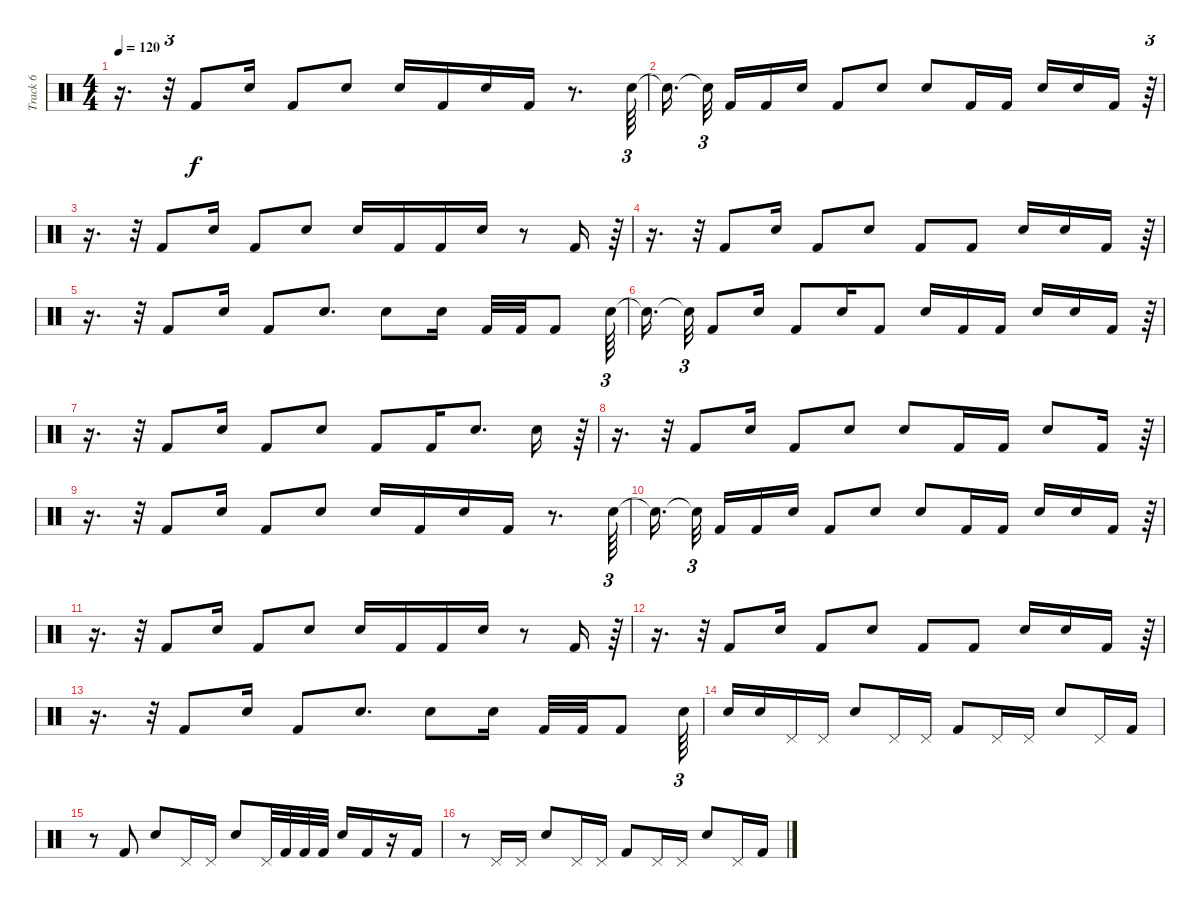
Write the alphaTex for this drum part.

\track ("Track 6" "Track 6") {instrument percussion}
\staff {score}
\articulation defaults
\ts (4 4)
\tempo 120
\clef neutral
\ks c
r.16{d dy f} r.32{tu (3 2)} "Kick (hit) 2".8 "Electric Snare (hit)".16 "Kick (hit) 2".8 "Electric Snare (hit)".8 "Electric Snare (hit)".16 "Kick (hit) 2".16 "Electric Snare (hit)".16 "Kick (hit) 2".16 r.8{d} "Electric Snare (hit)".64{tu (3 2)} |
"Snare (hit)"{t}.16{d beam splitsecondary} "Snare (hit)"{t}.32{tu (3 2) beam splitsecondary} "Kick (hit) 2".16 "Kick (hit) 2".16 "Electric Snare (hit)".16 "Kick (hit) 2".8 "Electric Snare (hit)".8 "Electric Snare (hit)".8 "Kick (hit) 2".16 "Kick (hit) 2".16 "Electric Snare (hit)".16 "Electric Snare (hit)".16 "Kick (hit) 2".16 r.64{tu (3 2)} |
r.16{d} r.32{tu (3 2)} "Kick (hit) 2".8 "Electric Snare (hit)".16 "Kick (hit) 2".8 "Electric Snare (hit)".8 "Electric Snare (hit)".16 "Kick (hit) 2".16 "Kick (hit) 2".16 "Electric Snare (hit)".16 r.8 "Kick (hit) 2".16 r.64{tu (3 2)} |
r.16{d} r.32{tu (3 2)} "Kick (hit) 2".8 "Electric Snare (hit)".16 "Kick (hit) 2".8 "Electric Snare (hit)".8 "Kick (hit) 2".8 "Kick (hit) 2".8 "Electric Snare (hit)".16 "Electric Snare (hit)".16 "Kick (hit) 2".16 r.64{tu (3 2)} |
r.16{d} r.32{tu (3 2)} "Kick (hit) 2".8 "Electric Snare (hit)".16 "Kick (hit) 2".8 "Electric Snare (hit)".8{d} "Electric Snare (hit)".8 "Electric Snare (hit)".16 "Kick (hit) 2".32 "Kick (hit) 2".32 "Kick (hit) 2".8 "Electric Snare (hit)".64{tu (3 2)} |
"Snare (hit)"{t}.16{d beam splitsecondary} "Snare (hit)"{t}.32{tu (3 2)} "Kick (hit) 2".8 "Electric Snare (hit)".16 "Kick (hit) 2".8 "Electric Snare (hit)".16 "Kick (hit) 2".8 "Electric Snare (hit)".16 "Kick (hit) 2".16 "Kick (hit) 2".16 "Electric Snare (hit)".16 "Electric Snare (hit)".16 "Kick (hit) 2".16 r.64{tu (3 2)} |
r.16{d} r.32{tu (3 2)} "Kick (hit) 2".8 "Electric Snare (hit)".16 "Kick (hit) 2".8 "Electric Snare (hit)".8 "Kick (hit) 2".8 "Kick (hit) 2".16 "Electric Snare (hit)".8{d} "Electric Snare (hit)".16 r.64{tu (3 2)} |
r.16{d} r.32{tu (3 2)} "Kick (hit) 2".8 "Electric Snare (hit)".16 "Kick (hit) 2".8 "Electric Snare (hit)".8 "Electric Snare (hit)".8 "Kick (hit) 2".16 "Kick (hit) 2".16 "Electric Snare (hit)".8 "Kick (hit) 2".16 r.64{tu (3 2)} |
r.16{d} r.32{tu (3 2)} "Kick (hit) 2".8 "Electric Snare (hit)".16 "Kick (hit) 2".8 "Electric Snare (hit)".8 "Electric Snare (hit)".16 "Kick (hit) 2".16 "Electric Snare (hit)".16 "Kick (hit) 2".16 r.8{d} "Electric Snare (hit)".64{tu (3 2)} |
"Snare (hit)"{t}.16{d beam splitsecondary} "Snare (hit)"{t}.32{tu (3 2) beam splitsecondary} "Kick (hit) 2".16 "Kick (hit) 2".16 "Electric Snare (hit)".16 "Kick (hit) 2".8 "Electric Snare (hit)".8 "Electric Snare (hit)".8 "Kick (hit) 2".16 "Kick (hit) 2".16 "Electric Snare (hit)".16 "Electric Snare (hit)".16 "Kick (hit) 2".16 r.64{tu (3 2)} |
r.16{d} r.32{tu (3 2)} "Kick (hit) 2".8 "Electric Snare (hit)".16 "Kick (hit) 2".8 "Electric Snare (hit)".8 "Electric Snare (hit)".16 "Kick (hit) 2".16 "Kick (hit) 2".16 "Electric Snare (hit)".16 r.8 "Kick (hit) 2".16 r.64{tu (3 2)} |
r.16{d} r.32{tu (3 2)} "Kick (hit) 2".8 "Electric Snare (hit)".16 "Kick (hit) 2".8 "Electric Snare (hit)".8 "Kick (hit) 2".8 "Kick (hit) 2".8 "Electric Snare (hit)".16 "Electric Snare (hit)".16 "Kick (hit) 2".16 r.64{tu (3 2)} |
r.16{d} r.32{tu (3 2)} "Kick (hit) 2".8 "Electric Snare (hit)".16 "Kick (hit) 2".8 "Electric Snare (hit)".8{d} "Electric Snare (hit)".8 "Electric Snare (hit)".16 "Kick (hit) 2".32 "Kick (hit) 2".32 "Kick (hit) 2".8 "Electric Snare (hit)".64{tu (3 2)} |
"Electric Snare (hit)".16 "Electric Snare (hit)".16 "Pedal Hi-Hat (hit)".16 "Pedal Hi-Hat (hit)".16 "Electric Snare (hit)".8 "Pedal Hi-Hat (hit)".16 "Pedal Hi-Hat (hit)".16 "Kick (hit) 2".8 "Pedal Hi-Hat (hit)".16 "Pedal Hi-Hat (hit)".16 "Electric Snare (hit)".8 "Pedal Hi-Hat (hit)".16 "Kick (hit) 2".16 |
r.8 "Kick (hit) 2".8 "Electric Snare (hit)".8 "Pedal Hi-Hat (hit)".16 "Pedal Hi-Hat (hit)".16 "Electric Snare (hit)".8 "Pedal Hi-Hat (hit)".32 "Kick (hit) 2".32 "Kick (hit) 2".32 "Kick (hit) 2".32 "Electric Snare (hit)".16 "Kick (hit) 2".16 r.16 "Kick (hit) 2".16 |
r.8 "Pedal Hi-Hat (hit)".16 "Pedal Hi-Hat (hit)".16 "Electric Snare (hit)".8 "Pedal Hi-Hat (hit)".16 "Pedal Hi-Hat (hit)".16 "Kick (hit) 2".8 "Pedal Hi-Hat (hit)".16 "Pedal Hi-Hat (hit)".16 "Electric Snare (hit)".8 "Pedal Hi-Hat (hit)".16 "Kick (hit) 2".16
